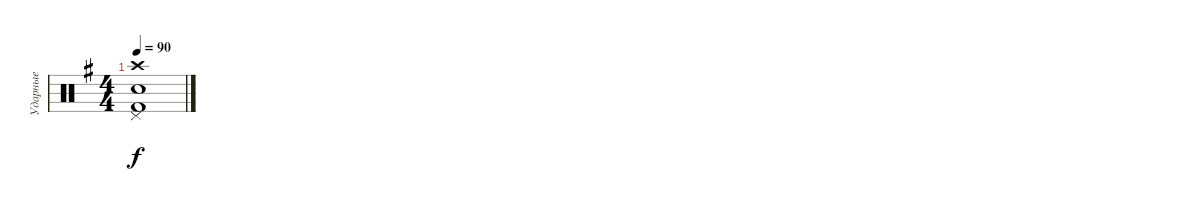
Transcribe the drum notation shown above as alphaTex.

\track ("Ударные" "Ударные") {instrument percussion}
\staff {score}
\articulation defaults
\ts (4 4)
\tempo 90
\clef neutral
\ks eminor
("Snare (hit) 2" "Pedal Hi-Hat (hit)" "Kick (hit) 2" "Crash high (hit)").1{dy f}
